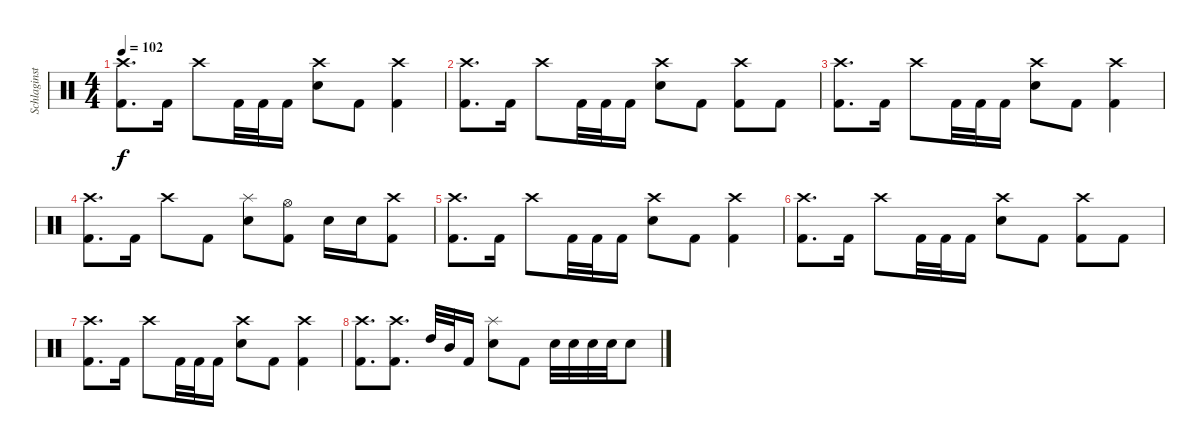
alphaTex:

\track ("Schlaginstrumente - Auswahl" "Schlaginst") {instrument percussion}
\staff {score}
\articulation defaults
\ts (4 4)
\tempo 102
\clef neutral
\ks c
("Crash high (hit)" "Kick (hit) 2").8{d dy f} "Kick (hit) 2".16 "Crash high (hit)".8 "Kick (hit) 2".32 "Kick (hit) 2".32 "Kick (hit) 2".16 ("Crash high (hit)" "Snare (hit) 2").8 "Kick (hit) 2".8 ("Crash high (hit)" "Kick (hit) 2").4 |
("Crash high (hit)" "Kick (hit) 2").8{d} "Kick (hit) 2".16 "Crash high (hit)".8 "Kick (hit) 2".32 "Kick (hit) 2".32 "Kick (hit) 2".16 ("Crash high (hit)" "Snare (hit) 2").8 "Kick (hit) 2".8 ("Crash high (hit)" "Kick (hit) 2").8 "Kick (hit) 2".8 |
("Crash high (hit)" "Kick (hit) 2").8{d} "Kick (hit) 2".16 "Crash high (hit)".8 "Kick (hit) 2".32 "Kick (hit) 2".32 "Kick (hit) 2".16 ("Crash high (hit)" "Snare (hit) 2").8 "Kick (hit) 2".8 ("Crash high (hit)" "Kick (hit) 2").4 |
("Crash high (hit)" "Kick (hit) 2").8{d} "Kick (hit) 2".16 "Crash high (hit)".8 "Kick (hit) 2".8 ("Splash (hit)" "Snare (hit) 2").8 ("Hi-Hat (open)" "Kick (hit) 2").8 "Snare (hit) 2".16 "Snare (hit) 2".16 ("Crash high (hit)" "Kick (hit) 2").8 |
("Crash high (hit)" "Kick (hit) 2").8{d} "Kick (hit) 2".16 "Crash high (hit)".8 "Kick (hit) 2".32 "Kick (hit) 2".32 "Kick (hit) 2".16 ("Crash high (hit)" "Snare (hit) 2").8 "Kick (hit) 2".8 ("Crash high (hit)" "Kick (hit) 2").4 |
("Crash high (hit)" "Kick (hit) 2").8{d} "Kick (hit) 2".16 "Crash high (hit)".8 "Kick (hit) 2".32 "Kick (hit) 2".32 "Kick (hit) 2".16 ("Crash high (hit)" "Snare (hit) 2").8 "Kick (hit) 2".8 ("Crash high (hit)" "Kick (hit) 2").8 "Kick (hit) 2".8 |
("Crash high (hit)" "Kick (hit) 2").8{d} "Kick (hit) 2".16 "Crash high (hit)".8 "Kick (hit) 2".32 "Kick (hit) 2".32 "Kick (hit) 2".16 ("Crash high (hit)" "Snare (hit) 2").8 "Kick (hit) 2".8 ("Crash high (hit)" "Kick (hit) 2").4 |
("Crash high (hit)" "Kick (hit) 2").8{d} ("Crash high (hit)" "Kick (hit) 2").8{d} "High Tom (hit)".32 "Mid Tom (hit)".32 "Kick (hit) 2".16 ("Splash (hit)" "Snare (hit) 2").8 "Kick (hit) 2".8 "Snare (hit) 2".32 "Snare (hit) 2".32 "Snare (hit) 2".32 "Snare (hit) 2".32 "Snare (hit) 2".8
